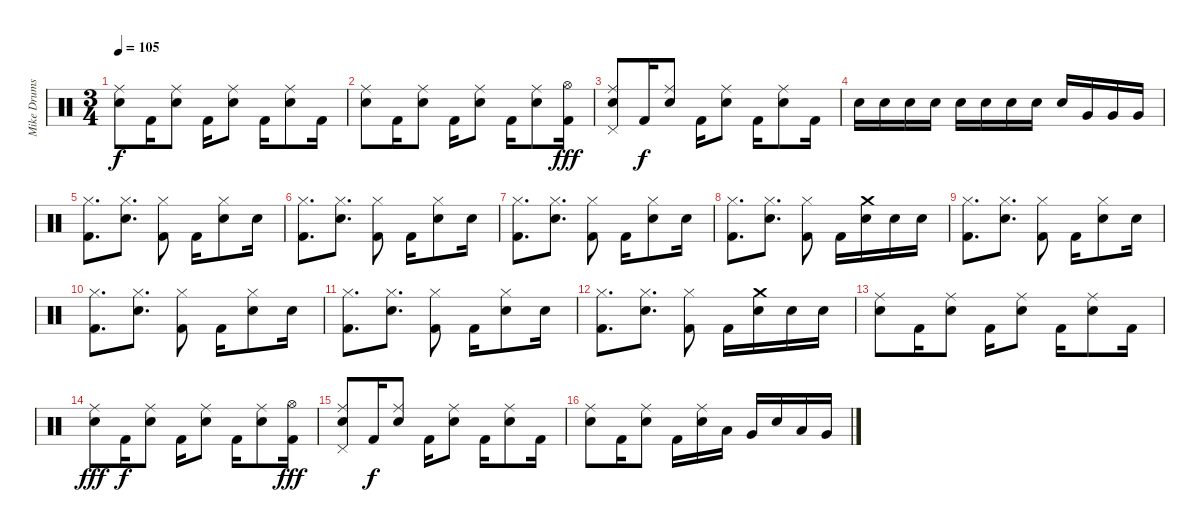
\track ("Mike Drums" "Mike Drums") {instrument percussion}
\staff {score}
\articulation defaults
\ts (3 4)
\tempo 105
\clef neutral
\ks c
("Ride (middle)" "Electric Snare (hit)").8{dy f} "Kick (hit) 2".16 ("Ride (middle)" "Electric Snare (hit)").8 "Kick (hit) 2".16 ("Ride (middle)" "Electric Snare (hit)").8 "Kick (hit) 2".16 ("Ride (middle)" "Electric Snare (hit)").8 "Kick (hit) 2".16 |
("Ride (middle)" "Electric Snare (hit)").8 "Kick (hit) 2".16 ("Ride (middle)" "Electric Snare (hit)").8 "Kick (hit) 2".16 ("Ride (middle)" "Electric Snare (hit)").8 "Kick (hit) 2".16 ("Ride (middle)" "Electric Snare (hit)").8 ("Hi-Hat (open)" "Kick (hit) 2").16{dy fff} |
("Ride (middle)" "Pedal Hi-Hat (hit)" "Electric Snare (hit)").8 "Kick (hit) 2".16{dy f} ("Ride (middle)" "Electric Snare (hit)").8 "Kick (hit) 2".16 ("Ride (middle)" "Electric Snare (hit)").8 "Kick (hit) 2".16 ("Ride (middle)" "Electric Snare (hit)").8 "Kick (hit) 2".16 |
"Electric Snare (hit)".16 "Electric Snare (hit)".16 "Electric Snare (hit)".16 "Electric Snare (hit)".16 "Electric Snare (hit)".16 "Electric Snare (hit)".16 "Electric Snare (hit)".16 "Electric Snare (hit)".16 "Electric Snare (hit)".16 "Very Low Tom (hit)".16 "Very Low Tom (hit)".16 "Very Low Tom (hit)".16 |
("Hi-Hat (closed)" "Kick (hit) 2").8{d} ("Hi-Hat (closed)" "Electric Snare (hit)").8{d} ("Hi-Hat (closed)" "Kick (hit) 2").8 "Kick (hit) 2".16 ("Hi-Hat (closed)" "Electric Snare (hit)").8 "Electric Snare (hit)".16 |
("Hi-Hat (closed)" "Kick (hit) 2").8{d} ("Hi-Hat (closed)" "Electric Snare (hit)").8{d} ("Hi-Hat (closed)" "Kick (hit) 2").8 "Kick (hit) 2".16 ("Hi-Hat (closed)" "Electric Snare (hit)").8 "Electric Snare (hit)".16 |
("Hi-Hat (closed)" "Kick (hit) 2").8{d} ("Hi-Hat (closed)" "Electric Snare (hit)").8{d} ("Hi-Hat (closed)" "Kick (hit) 2").8 "Kick (hit) 2".16 ("Hi-Hat (closed)" "Electric Snare (hit)").8 "Electric Snare (hit)".16 |
("Hi-Hat (closed)" "Kick (hit) 2").8{d} ("Hi-Hat (closed)" "Electric Snare (hit)").8{d} ("Hi-Hat (closed)" "Kick (hit) 2").8 "Kick (hit) 2".16 ("Crash medium (hit)" "Electric Snare (hit)").16 "Electric Snare (hit)".16 "Electric Snare (hit)".16 |
("Hi-Hat (closed)" "Kick (hit) 2").8{d} ("Hi-Hat (closed)" "Electric Snare (hit)").8{d} ("Hi-Hat (closed)" "Kick (hit) 2").8 "Kick (hit) 2".16 ("Hi-Hat (closed)" "Electric Snare (hit)").8 "Electric Snare (hit)".16 |
("Hi-Hat (closed)" "Kick (hit) 2").8{d} ("Hi-Hat (closed)" "Electric Snare (hit)").8{d} ("Hi-Hat (closed)" "Kick (hit) 2").8 "Kick (hit) 2".16 ("Hi-Hat (closed)" "Electric Snare (hit)").8 "Electric Snare (hit)".16 |
("Hi-Hat (closed)" "Kick (hit) 2").8{d} ("Hi-Hat (closed)" "Electric Snare (hit)").8{d} ("Hi-Hat (closed)" "Kick (hit) 2").8 "Kick (hit) 2".16 ("Hi-Hat (closed)" "Electric Snare (hit)").8 "Electric Snare (hit)".16 |
("Hi-Hat (closed)" "Kick (hit) 2").8{d} ("Hi-Hat (closed)" "Electric Snare (hit)").8{d} ("Hi-Hat (closed)" "Kick (hit) 2").8 "Kick (hit) 2".16 ("Crash medium (hit)" "Electric Snare (hit)").16 "Electric Snare (hit)".16 "Electric Snare (hit)".16 |
("Ride (middle)" "Electric Snare (hit)").8 "Kick (hit) 2".16 ("Ride (middle)" "Electric Snare (hit)").8 "Kick (hit) 2".16 ("Ride (middle)" "Electric Snare (hit)").8 "Kick (hit) 2".16 ("Ride (middle)" "Electric Snare (hit)").8 "Kick (hit) 2".16 |
("Ride (middle)" "Electric Snare (hit)").8{dy fff} "Kick (hit) 2".16{dy f} ("Ride (middle)" "Electric Snare (hit)").8 "Kick (hit) 2".16 ("Ride (middle)" "Electric Snare (hit)").8 "Kick (hit) 2".16 ("Ride (middle)" "Electric Snare (hit)").8 ("Hi-Hat (open)" "Kick (hit) 2").16{dy fff} |
("Ride (middle)" "Pedal Hi-Hat (hit)" "Electric Snare (hit)").8 "Kick (hit) 2".16{dy f} ("Ride (middle)" "Electric Snare (hit)").8 "Kick (hit) 2".16 ("Ride (middle)" "Electric Snare (hit)").8 "Kick (hit) 2".16 ("Ride (middle)" "Electric Snare (hit)").8 "Kick (hit) 2".16 |
("Ride (middle)" "Electric Snare (hit)").8 "Kick (hit) 2".16 ("Ride (middle)" "Electric Snare (hit)").8 "Kick (hit) 2".16 ("Ride (middle)" "Electric Snare (hit)").16 "Low Tom (hit)".16 "Very Low Tom (hit)".16 "Electric Snare (hit)".16 "Low Tom (hit)".16 "Very Low Tom (hit)".16
